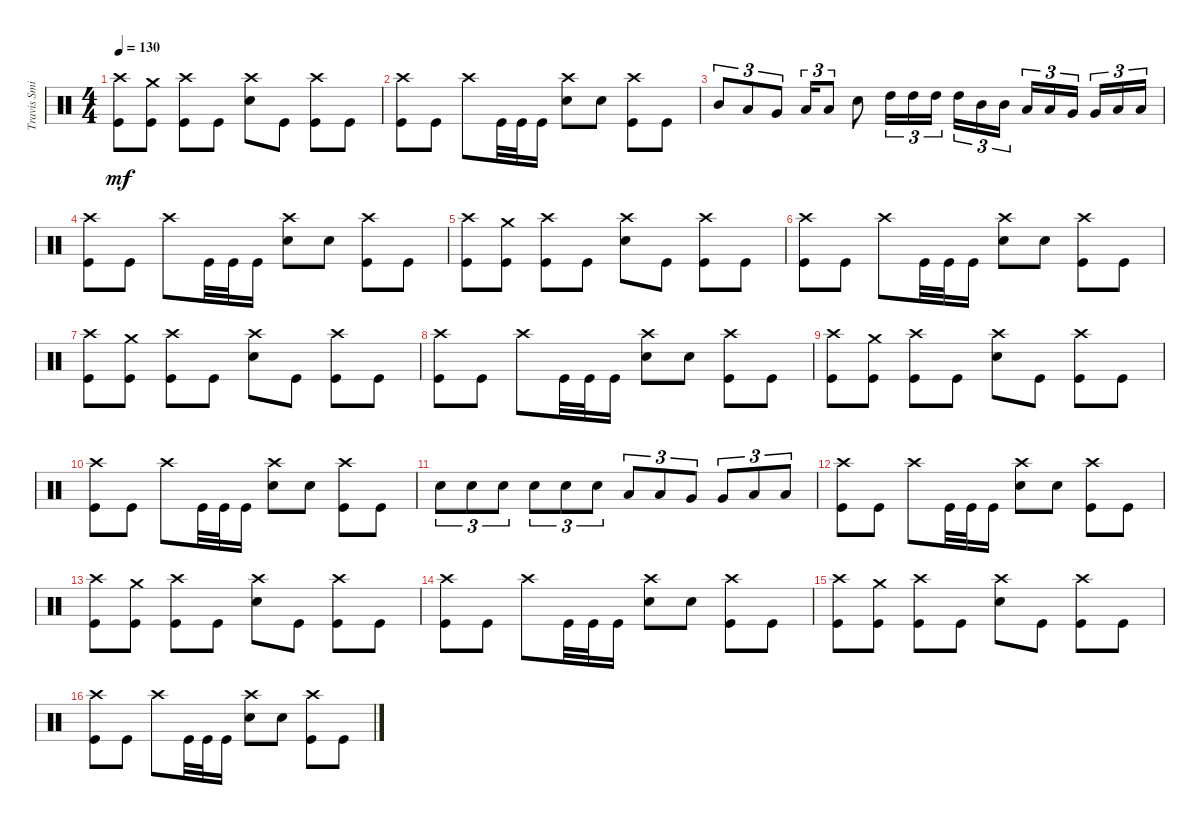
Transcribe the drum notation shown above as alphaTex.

\track ("Travis Smith" "Travis Smi") {instrument percussion}
\staff {score}
\articulation defaults
\ts (4 4)
\tempo 130
\clef neutral
\ks c
("Crash high (hit)" "Kick (hit)").8{dy mf} ("Crash medium (hit)" "Kick (hit)").8 ("Crash high (hit)" "Kick (hit)").8 "Kick (hit)".8 ("Crash high (hit)" "Snare (hit) 2").8 "Kick (hit)".8 ("Crash high (hit)" "Kick (hit)").8 "Kick (hit)".8 |
("Crash high (hit)" "Kick (hit)").8 "Kick (hit)".8 "Crash high (hit)".8 "Kick (hit)".32 "Kick (hit)".32 "Kick (hit)".16 ("Crash high (hit)" "Snare (hit) 2").8 "Snare (hit) 2".8 ("Crash high (hit)" "Kick (hit)").8 "Kick (hit)".8 |
"Mid Tom (hit)".8{tu (3 2)} "Low Tom (hit)".8{tu (3 2)} "Very Low Tom (hit)".8{tu (3 2)} "Low Floor Tom (hit)".16{tu (3 2)} "Low Floor Tom (hit)".8{tu (3 2)} "Snare (hit) 2".8 "High Tom (hit)".16{tu (3 2)} "High Tom (hit)".16{tu (3 2)} "High Tom (hit)".16{tu (3 2)} "High Tom (hit)".16{tu (3 2)} "Mid Tom (hit)".16{tu (3 2)} "Mid Tom (hit)".16{tu (3 2)} "Low Tom (hit)".16{tu (3 2)} "Low Tom (hit)".16{tu (3 2)} "Very Low Tom (hit)".16{tu (3 2)} "Very Low Tom (hit)".16{tu (3 2)} "Low Floor Tom (hit)".16{tu (3 2)} "Low Floor Tom (hit)".16{tu (3 2)} |
("Crash high (hit)" "Kick (hit)").8 "Kick (hit)".8 "Crash high (hit)".8 "Kick (hit)".32 "Kick (hit)".32 "Kick (hit)".16 ("Crash high (hit)" "Snare (hit) 2").8 "Snare (hit) 2".8 ("Crash high (hit)" "Kick (hit)").8 "Kick (hit)".8 |
("Crash high (hit)" "Kick (hit)").8 ("Crash medium (hit)" "Kick (hit)").8 ("Crash high (hit)" "Kick (hit)").8 "Kick (hit)".8 ("Crash high (hit)" "Snare (hit) 2").8 "Kick (hit)".8 ("Crash high (hit)" "Kick (hit)").8 "Kick (hit)".8 |
("Crash high (hit)" "Kick (hit)").8 "Kick (hit)".8 "Crash high (hit)".8 "Kick (hit)".32 "Kick (hit)".32 "Kick (hit)".16 ("Crash high (hit)" "Snare (hit) 2").8 "Snare (hit) 2".8 ("Crash high (hit)" "Kick (hit)").8 "Kick (hit)".8 |
("Crash high (hit)" "Kick (hit)").8 ("Crash medium (hit)" "Kick (hit)").8 ("Crash high (hit)" "Kick (hit)").8 "Kick (hit)".8 ("Crash high (hit)" "Snare (hit) 2").8 "Kick (hit)".8 ("Crash high (hit)" "Kick (hit)").8 "Kick (hit)".8 |
("Crash high (hit)" "Kick (hit)").8 "Kick (hit)".8 "Crash high (hit)".8 "Kick (hit)".32 "Kick (hit)".32 "Kick (hit)".16 ("Crash high (hit)" "Snare (hit) 2").8 "Snare (hit) 2".8 ("Crash high (hit)" "Kick (hit)").8 "Kick (hit)".8 |
("Crash high (hit)" "Kick (hit)").8 ("Crash medium (hit)" "Kick (hit)").8 ("Crash high (hit)" "Kick (hit)").8 "Kick (hit)".8 ("Crash high (hit)" "Snare (hit) 2").8 "Kick (hit)".8 ("Crash high (hit)" "Kick (hit)").8 "Kick (hit)".8 |
("Crash high (hit)" "Kick (hit)").8 "Kick (hit)".8 "Crash high (hit)".8 "Kick (hit)".32 "Kick (hit)".32 "Kick (hit)".16 ("Crash high (hit)" "Snare (hit) 2").8 "Snare (hit) 2".8 ("Crash high (hit)" "Kick (hit)").8 "Kick (hit)".8 |
"Snare (hit) 2".8{tu (3 2)} "Snare (hit) 2".8{tu (3 2)} "Snare (hit) 2".8{tu (3 2)} "Snare (hit) 2".8{tu (3 2)} "Snare (hit) 2".8{tu (3 2)} "Snare (hit) 2".8{tu (3 2)} "Low Tom (hit)".8{tu (3 2)} "Low Tom (hit)".8{tu (3 2)} "Very Low Tom (hit)".8{tu (3 2)} "Very Low Tom (hit)".8{tu (3 2)} "Low Floor Tom (hit)".8{tu (3 2)} "Low Floor Tom (hit)".8{tu (3 2)} |
("Crash high (hit)" "Kick (hit)").8 "Kick (hit)".8 "Crash high (hit)".8 "Kick (hit)".32 "Kick (hit)".32 "Kick (hit)".16 ("Crash high (hit)" "Snare (hit) 2").8 "Snare (hit) 2".8 ("Crash high (hit)" "Kick (hit)").8 "Kick (hit)".8 |
("Crash high (hit)" "Kick (hit)").8 ("Crash medium (hit)" "Kick (hit)").8 ("Crash high (hit)" "Kick (hit)").8 "Kick (hit)".8 ("Crash high (hit)" "Snare (hit) 2").8 "Kick (hit)".8 ("Crash high (hit)" "Kick (hit)").8 "Kick (hit)".8 |
("Crash high (hit)" "Kick (hit)").8 "Kick (hit)".8 "Crash high (hit)".8 "Kick (hit)".32 "Kick (hit)".32 "Kick (hit)".16 ("Crash high (hit)" "Snare (hit) 2").8 "Snare (hit) 2".8 ("Crash high (hit)" "Kick (hit)").8 "Kick (hit)".8 |
("Crash high (hit)" "Kick (hit)").8 ("Crash medium (hit)" "Kick (hit)").8 ("Crash high (hit)" "Kick (hit)").8 "Kick (hit)".8 ("Crash high (hit)" "Snare (hit) 2").8 "Kick (hit)".8 ("Crash high (hit)" "Kick (hit)").8 "Kick (hit)".8 |
("Crash high (hit)" "Kick (hit)").8 "Kick (hit)".8 "Crash high (hit)".8 "Kick (hit)".32 "Kick (hit)".32 "Kick (hit)".16 ("Crash high (hit)" "Snare (hit) 2").8 "Snare (hit) 2".8 ("Crash high (hit)" "Kick (hit)").8 "Kick (hit)".8
